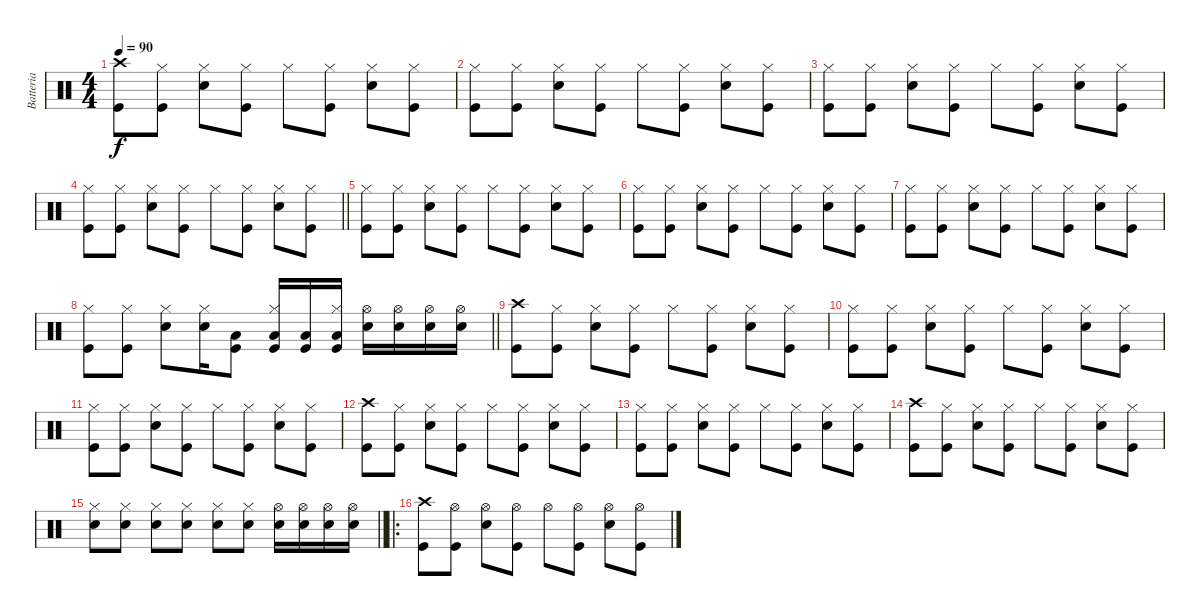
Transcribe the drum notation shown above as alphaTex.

\track ("Batteria" "Batteria") {instrument percussion}
\staff {score}
\articulation defaults
\ts (4 4)
\tempo 90
\clef neutral
\ks c
("Kick (hit)" "Crash high (hit)").8{dy f} ("Kick (hit)" "Hi-Hat (closed)").8 ("Snare (hit) 2" "Hi-Hat (closed)").8 ("Kick (hit)" "Hi-Hat (closed)").8 "Hi-Hat (closed)".8 ("Kick (hit)" "Hi-Hat (closed)").8 ("Snare (hit) 2" "Hi-Hat (closed)").8 ("Kick (hit)" "Hi-Hat (closed)").8 |
("Kick (hit)" "Hi-Hat (closed)").8 ("Kick (hit)" "Hi-Hat (closed)").8 ("Snare (hit) 2" "Hi-Hat (closed)").8 ("Kick (hit)" "Hi-Hat (closed)").8 "Hi-Hat (closed)".8 ("Kick (hit)" "Hi-Hat (closed)").8 ("Snare (hit) 2" "Hi-Hat (closed)").8 ("Kick (hit)" "Hi-Hat (closed)").8 |
("Kick (hit)" "Hi-Hat (closed)").8 ("Kick (hit)" "Hi-Hat (closed)").8 ("Snare (hit) 2" "Hi-Hat (closed)").8 ("Kick (hit)" "Hi-Hat (closed)").8 "Hi-Hat (closed)".8 ("Kick (hit)" "Hi-Hat (closed)").8 ("Snare (hit) 2" "Hi-Hat (closed)").8 ("Kick (hit)" "Hi-Hat (closed)").8 |
\barLineRight lightlight
("Kick (hit)" "Hi-Hat (closed)").8 ("Kick (hit)" "Hi-Hat (closed)").8 ("Snare (hit) 2" "Hi-Hat (closed)").8 ("Kick (hit)" "Hi-Hat (closed)").8 "Hi-Hat (closed)".8 ("Kick (hit)" "Hi-Hat (closed)").8 ("Snare (hit) 2" "Hi-Hat (closed)").8 ("Kick (hit)" "Hi-Hat (closed)").8 |
("Kick (hit)" "Hi-Hat (closed)").8 ("Kick (hit)" "Hi-Hat (closed)").8 ("Snare (hit) 2" "Hi-Hat (closed)").8 ("Kick (hit)" "Hi-Hat (closed)").8 "Hi-Hat (closed)".8 ("Kick (hit)" "Hi-Hat (closed)").8 ("Snare (hit) 2" "Hi-Hat (closed)").8 ("Kick (hit)" "Hi-Hat (closed)").8 |
("Kick (hit)" "Hi-Hat (closed)").8 ("Kick (hit)" "Hi-Hat (closed)").8 ("Snare (hit) 2" "Hi-Hat (closed)").8 ("Kick (hit)" "Hi-Hat (closed)").8 "Hi-Hat (closed)".8 ("Kick (hit)" "Hi-Hat (closed)").8 ("Snare (hit) 2" "Hi-Hat (closed)").8 ("Kick (hit)" "Hi-Hat (closed)").8 |
("Kick (hit)" "Hi-Hat (closed)").8 ("Kick (hit)" "Hi-Hat (closed)").8 ("Snare (hit) 2" "Hi-Hat (closed)").8 ("Kick (hit)" "Hi-Hat (closed)").8 "Hi-Hat (closed)".8 ("Kick (hit)" "Hi-Hat (closed)").8 ("Snare (hit) 2" "Hi-Hat (closed)").8 ("Kick (hit)" "Hi-Hat (closed)").8 |
\barLineRight lightlight
("Kick (hit)" "Hi-Hat (closed)").8 ("Kick (hit)" "Hi-Hat (closed)").8 ("Snare (hit) 2" "Hi-Hat (closed)").8 ("Snare (hit) 2" "Hi-Hat (closed)").16 ("Kick (hit)" "Low Floor Tom (hit)").8 ("Kick (hit)" "Low Floor Tom (hit)" "Hi-Hat (closed)").16 ("Kick (hit)" "Low Floor Tom (hit)").16 ("Kick (hit)" "Low Floor Tom (hit)" "Hi-Hat (closed)").16 ("Snare (hit) 2" "Hi-Hat (open)").16 ("Snare (hit) 2" "Hi-Hat (open)").16 ("Snare (hit) 2" "Hi-Hat (open)").16 ("Snare (hit) 2" "Hi-Hat (open)").16 |
("Kick (hit)" "Crash high (hit)").8 ("Kick (hit)" "Hi-Hat (closed)").8 ("Snare (hit) 2" "Hi-Hat (closed)").8 ("Kick (hit)" "Hi-Hat (closed)").8 "Hi-Hat (closed)".8 ("Kick (hit)" "Hi-Hat (closed)").8 ("Snare (hit) 2" "Hi-Hat (closed)").8 ("Kick (hit)" "Hi-Hat (closed)").8 |
("Kick (hit)" "Hi-Hat (closed)").8 ("Kick (hit)" "Hi-Hat (closed)").8 ("Snare (hit) 2" "Hi-Hat (closed)").8 ("Kick (hit)" "Hi-Hat (closed)").8 "Hi-Hat (closed)".8 ("Kick (hit)" "Hi-Hat (closed)").8 ("Snare (hit) 2" "Hi-Hat (closed)").8 ("Kick (hit)" "Hi-Hat (closed)").8 |
("Kick (hit)" "Hi-Hat (closed)").8 ("Kick (hit)" "Hi-Hat (closed)").8 ("Snare (hit) 2" "Hi-Hat (closed)").8 ("Kick (hit)" "Hi-Hat (closed)").8 "Hi-Hat (closed)".8 ("Kick (hit)" "Hi-Hat (closed)").8 ("Snare (hit) 2" "Hi-Hat (closed)").8 ("Kick (hit)" "Hi-Hat (closed)").8 |
("Kick (hit)" "Crash high (hit)").8 ("Kick (hit)" "Hi-Hat (closed)").8 ("Snare (hit) 2" "Hi-Hat (closed)").8 ("Kick (hit)" "Hi-Hat (closed)").8 "Hi-Hat (closed)".8 ("Kick (hit)" "Hi-Hat (closed)").8 ("Snare (hit) 2" "Hi-Hat (closed)").8 ("Kick (hit)" "Hi-Hat (closed)").8 |
("Kick (hit)" "Hi-Hat (closed)").8 ("Kick (hit)" "Hi-Hat (closed)").8 ("Snare (hit) 2" "Hi-Hat (closed)").8 ("Kick (hit)" "Hi-Hat (closed)").8 "Hi-Hat (closed)".8 ("Kick (hit)" "Hi-Hat (closed)").8 ("Snare (hit) 2" "Hi-Hat (closed)").8 ("Kick (hit)" "Hi-Hat (closed)").8 |
("Kick (hit)" "Crash high (hit)").8 ("Kick (hit)" "Hi-Hat (closed)").8 ("Snare (hit) 2" "Hi-Hat (closed)").8 ("Kick (hit)" "Hi-Hat (closed)").8 "Hi-Hat (closed)".8 ("Kick (hit)" "Hi-Hat (closed)").8 ("Snare (hit) 2" "Hi-Hat (closed)").8 ("Kick (hit)" "Hi-Hat (closed)").8 |
\barLineRight lightlight
("Snare (hit) 2" "Hi-Hat (closed)").8 ("Snare (hit) 2" "Hi-Hat (closed)").8 ("Snare (hit) 2" "Hi-Hat (closed)").8 ("Snare (hit) 2" "Hi-Hat (closed)").8 ("Snare (hit) 2" "Hi-Hat (closed)").8 ("Snare (hit) 2" "Hi-Hat (closed)").8 ("Snare (hit) 2" "Hi-Hat (open)").16 ("Snare (hit) 2" "Hi-Hat (open)").16 ("Snare (hit) 2" "Hi-Hat (open)").16 ("Snare (hit) 2" "Hi-Hat (open)").16 |
\ro
("Kick (hit)" "Crash high (hit)").8 ("Kick (hit)" "Hi-Hat (open)").8 ("Snare (hit) 2" "Hi-Hat (open)").8 ("Kick (hit)" "Hi-Hat (open)").8 "Hi-Hat (open)".8 ("Kick (hit)" "Hi-Hat (open)").8 ("Snare (hit) 2" "Hi-Hat (open)").8 ("Kick (hit)" "Hi-Hat (open)").8
